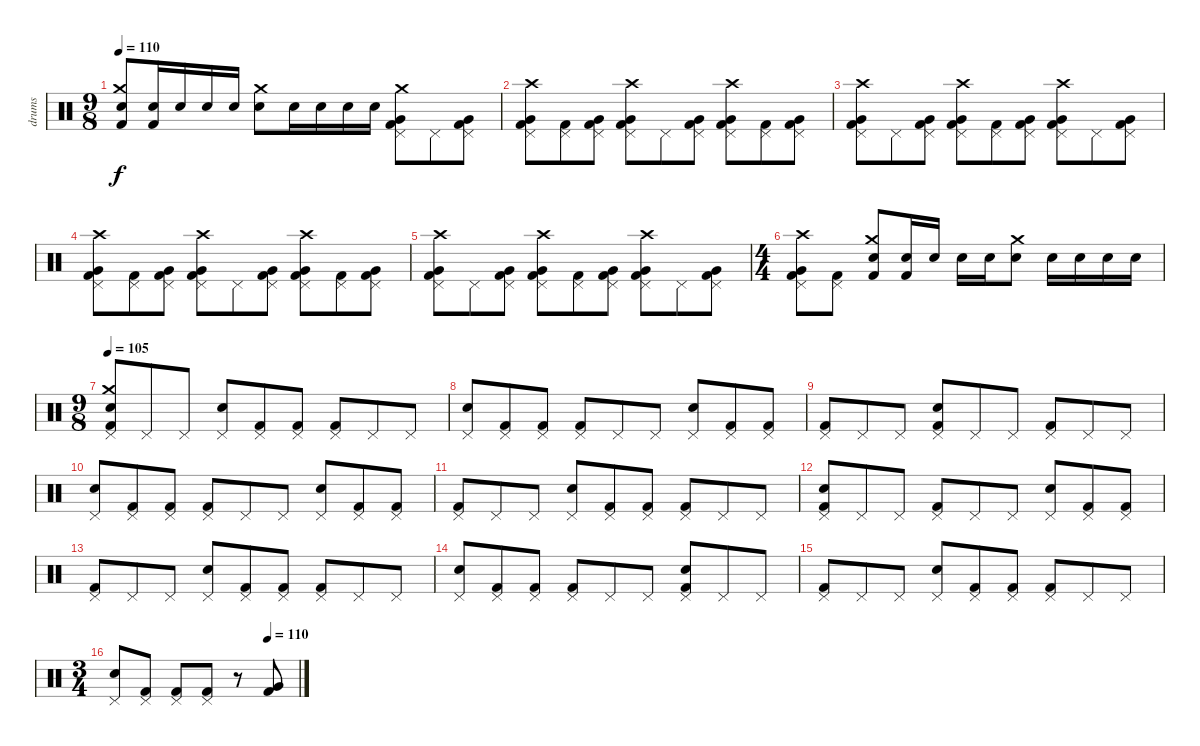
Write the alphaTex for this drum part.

\track ("drums" "drums") {instrument percussion}
\staff {score}
\articulation defaults
\ts (9 8)
\tempo 110
\clef neutral
\ks c
("Electric Snare (hit)" "Crash medium (hit)" "Kick (hit) 2").8{dy f} ("Electric Snare (hit)" "Kick (hit) 2").16 "Electric Snare (hit)".16 "Electric Snare (hit)".16 "Electric Snare (hit)".16 ("Electric Snare (hit)" "Crash medium (hit)").8 "Electric Snare (hit)".16 "Electric Snare (hit)".16 "Electric Snare (hit)".16 "Electric Snare (hit)".16 ("Very Low Tom (hit)" "Crash medium (hit)" "Pedal Hi-Hat (hit)" "Kick (hit) 2").8 "Pedal Hi-Hat (hit)".8 ("Very Low Tom (hit)" "Pedal Hi-Hat (hit)" "Kick (hit) 2").8 |
("Very Low Tom (hit)" "Crash high (hit)" "Pedal Hi-Hat (hit)" "Kick (hit) 2").8 ("Pedal Hi-Hat (hit)" "Kick (hit) 2").8 ("Very Low Tom (hit)" "Pedal Hi-Hat (hit)" "Kick (hit) 2").8 ("Very Low Tom (hit)" "Crash high (hit)" "Pedal Hi-Hat (hit)" "Kick (hit) 2").8 "Pedal Hi-Hat (hit)".8 ("Very Low Tom (hit)" "Pedal Hi-Hat (hit)" "Kick (hit) 2").8 ("Very Low Tom (hit)" "Crash high (hit)" "Pedal Hi-Hat (hit)" "Kick (hit) 2").8 ("Pedal Hi-Hat (hit)" "Kick (hit) 2").8 ("Very Low Tom (hit)" "Pedal Hi-Hat (hit)" "Kick (hit) 2").8 |
("Very Low Tom (hit)" "Crash high (hit)" "Pedal Hi-Hat (hit)" "Kick (hit) 2").8 "Pedal Hi-Hat (hit)".8 ("Very Low Tom (hit)" "Pedal Hi-Hat (hit)" "Kick (hit) 2").8 ("Very Low Tom (hit)" "Crash high (hit)" "Pedal Hi-Hat (hit)" "Kick (hit) 2").8 ("Pedal Hi-Hat (hit)" "Kick (hit) 2").8 ("Very Low Tom (hit)" "Pedal Hi-Hat (hit)" "Kick (hit) 2").8 ("Very Low Tom (hit)" "Crash high (hit)" "Pedal Hi-Hat (hit)" "Kick (hit) 2").8 "Pedal Hi-Hat (hit)".8 ("Very Low Tom (hit)" "Pedal Hi-Hat (hit)" "Kick (hit) 2").8 |
("Very Low Tom (hit)" "Crash high (hit)" "Pedal Hi-Hat (hit)" "Kick (hit) 2").8 ("Pedal Hi-Hat (hit)" "Kick (hit) 2").8 ("Very Low Tom (hit)" "Pedal Hi-Hat (hit)" "Kick (hit) 2").8 ("Very Low Tom (hit)" "Crash high (hit)" "Pedal Hi-Hat (hit)" "Kick (hit) 2").8 "Pedal Hi-Hat (hit)".8 ("Very Low Tom (hit)" "Pedal Hi-Hat (hit)" "Kick (hit) 2").8 ("Very Low Tom (hit)" "Crash high (hit)" "Pedal Hi-Hat (hit)" "Kick (hit) 2").8 ("Pedal Hi-Hat (hit)" "Kick (hit) 2").8 ("Very Low Tom (hit)" "Pedal Hi-Hat (hit)" "Kick (hit) 2").8 |
("Very Low Tom (hit)" "Crash high (hit)" "Pedal Hi-Hat (hit)" "Kick (hit) 2").8 "Pedal Hi-Hat (hit)".8 ("Very Low Tom (hit)" "Pedal Hi-Hat (hit)" "Kick (hit) 2").8 ("Very Low Tom (hit)" "Crash high (hit)" "Pedal Hi-Hat (hit)" "Kick (hit) 2").8 ("Pedal Hi-Hat (hit)" "Kick (hit) 2").8 ("Very Low Tom (hit)" "Pedal Hi-Hat (hit)" "Kick (hit) 2").8 ("Very Low Tom (hit)" "Crash high (hit)" "Pedal Hi-Hat (hit)" "Kick (hit) 2").8 "Pedal Hi-Hat (hit)".8 ("Very Low Tom (hit)" "Pedal Hi-Hat (hit)" "Kick (hit) 2").8 |
\ts (4 4)
("Very Low Tom (hit)" "Crash high (hit)" "Pedal Hi-Hat (hit)" "Kick (hit) 2").8 ("Pedal Hi-Hat (hit)" "Kick (hit) 2").8 ("Electric Snare (hit)" "Crash medium (hit)" "Kick (hit) 2").8 ("Electric Snare (hit)" "Kick (hit) 2").16 "Electric Snare (hit)".16 "Electric Snare (hit)".16 "Electric Snare (hit)".16 ("Electric Snare (hit)" "Crash medium (hit)").8 "Electric Snare (hit)".16 "Electric Snare (hit)".16 "Electric Snare (hit)".16 "Electric Snare (hit)".16 |
\ts (9 8)
\tempo 105
("Electric Snare (hit)" "Crash medium (hit)" "Pedal Hi-Hat (hit)" "Kick (hit) 2").8 "Pedal Hi-Hat (hit)".8 "Pedal Hi-Hat (hit)".8 ("Snare (hit) 2" "Pedal Hi-Hat (hit)").8 ("Pedal Hi-Hat (hit)" "Kick (hit) 2").8 ("Pedal Hi-Hat (hit)" "Kick (hit) 2").8 ("Pedal Hi-Hat (hit)" "Kick (hit) 2").8 "Pedal Hi-Hat (hit)".8 "Pedal Hi-Hat (hit)".8 |
("Snare (hit) 2" "Pedal Hi-Hat (hit)").8 ("Pedal Hi-Hat (hit)" "Kick (hit) 2").8 ("Pedal Hi-Hat (hit)" "Kick (hit) 2").8 ("Pedal Hi-Hat (hit)" "Kick (hit) 2").8 "Pedal Hi-Hat (hit)".8 "Pedal Hi-Hat (hit)".8 ("Snare (hit) 2" "Pedal Hi-Hat (hit)").8 ("Pedal Hi-Hat (hit)" "Kick (hit) 2").8 ("Pedal Hi-Hat (hit)" "Kick (hit) 2").8 |
("Pedal Hi-Hat (hit)" "Kick (hit) 2").8 "Pedal Hi-Hat (hit)".8 "Pedal Hi-Hat (hit)".8 ("Snare (hit) 2" "Pedal Hi-Hat (hit)" "Kick (hit) 2").8 "Pedal Hi-Hat (hit)".8 "Pedal Hi-Hat (hit)".8 ("Pedal Hi-Hat (hit)" "Kick (hit) 2").8 "Pedal Hi-Hat (hit)".8 "Pedal Hi-Hat (hit)".8 |
("Snare (hit) 2" "Pedal Hi-Hat (hit)").8 ("Pedal Hi-Hat (hit)" "Kick (hit) 2").8 ("Pedal Hi-Hat (hit)" "Kick (hit) 2").8 ("Pedal Hi-Hat (hit)" "Kick (hit) 2").8 "Pedal Hi-Hat (hit)".8 "Pedal Hi-Hat (hit)".8 ("Snare (hit) 2" "Pedal Hi-Hat (hit)").8 ("Pedal Hi-Hat (hit)" "Kick (hit) 2").8 ("Pedal Hi-Hat (hit)" "Kick (hit) 2").8 |
("Pedal Hi-Hat (hit)" "Kick (hit) 2").8 "Pedal Hi-Hat (hit)".8 "Pedal Hi-Hat (hit)".8 ("Snare (hit) 2" "Pedal Hi-Hat (hit)").8 ("Pedal Hi-Hat (hit)" "Kick (hit) 2").8 ("Pedal Hi-Hat (hit)" "Kick (hit) 2").8 ("Pedal Hi-Hat (hit)" "Kick (hit) 2").8 "Pedal Hi-Hat (hit)".8 "Pedal Hi-Hat (hit)".8 |
("Snare (hit) 2" "Pedal Hi-Hat (hit)" "Kick (hit) 2").8 "Pedal Hi-Hat (hit)".8 "Pedal Hi-Hat (hit)".8 ("Pedal Hi-Hat (hit)" "Kick (hit) 2").8 "Pedal Hi-Hat (hit)".8 "Pedal Hi-Hat (hit)".8 ("Snare (hit) 2" "Pedal Hi-Hat (hit)").8 ("Pedal Hi-Hat (hit)" "Kick (hit) 2").8 ("Pedal Hi-Hat (hit)" "Kick (hit) 2").8 |
("Pedal Hi-Hat (hit)" "Kick (hit) 2").8 "Pedal Hi-Hat (hit)".8 "Pedal Hi-Hat (hit)".8 ("Snare (hit) 2" "Pedal Hi-Hat (hit)").8 ("Pedal Hi-Hat (hit)" "Kick (hit) 2").8 ("Pedal Hi-Hat (hit)" "Kick (hit) 2").8 ("Pedal Hi-Hat (hit)" "Kick (hit) 2").8 "Pedal Hi-Hat (hit)".8 "Pedal Hi-Hat (hit)".8 |
("Snare (hit) 2" "Pedal Hi-Hat (hit)").8 ("Pedal Hi-Hat (hit)" "Kick (hit) 2").8 ("Pedal Hi-Hat (hit)" "Kick (hit) 2").8 ("Pedal Hi-Hat (hit)" "Kick (hit) 2").8 "Pedal Hi-Hat (hit)".8 "Pedal Hi-Hat (hit)".8 ("Snare (hit) 2" "Pedal Hi-Hat (hit)" "Kick (hit) 2").8 "Pedal Hi-Hat (hit)".8 "Pedal Hi-Hat (hit)".8 |
("Pedal Hi-Hat (hit)" "Kick (hit) 2").8 "Pedal Hi-Hat (hit)".8 "Pedal Hi-Hat (hit)".8 ("Snare (hit) 2" "Pedal Hi-Hat (hit)").8 ("Pedal Hi-Hat (hit)" "Kick (hit) 2").8 ("Pedal Hi-Hat (hit)" "Kick (hit) 2").8 ("Pedal Hi-Hat (hit)" "Kick (hit) 2").8 "Pedal Hi-Hat (hit)".8 "Pedal Hi-Hat (hit)".8 |
\ts (3 4)
\tempo (110 0.8333333333333334)
("Snare (hit) 2" "Pedal Hi-Hat (hit)").8 ("Pedal Hi-Hat (hit)" "Kick (hit) 2").8 ("Pedal Hi-Hat (hit)" "Kick (hit) 2").8 ("Pedal Hi-Hat (hit)" "Kick (hit) 2").8 r.8 ("Very Low Tom (hit)" "Kick (hit) 2").8
